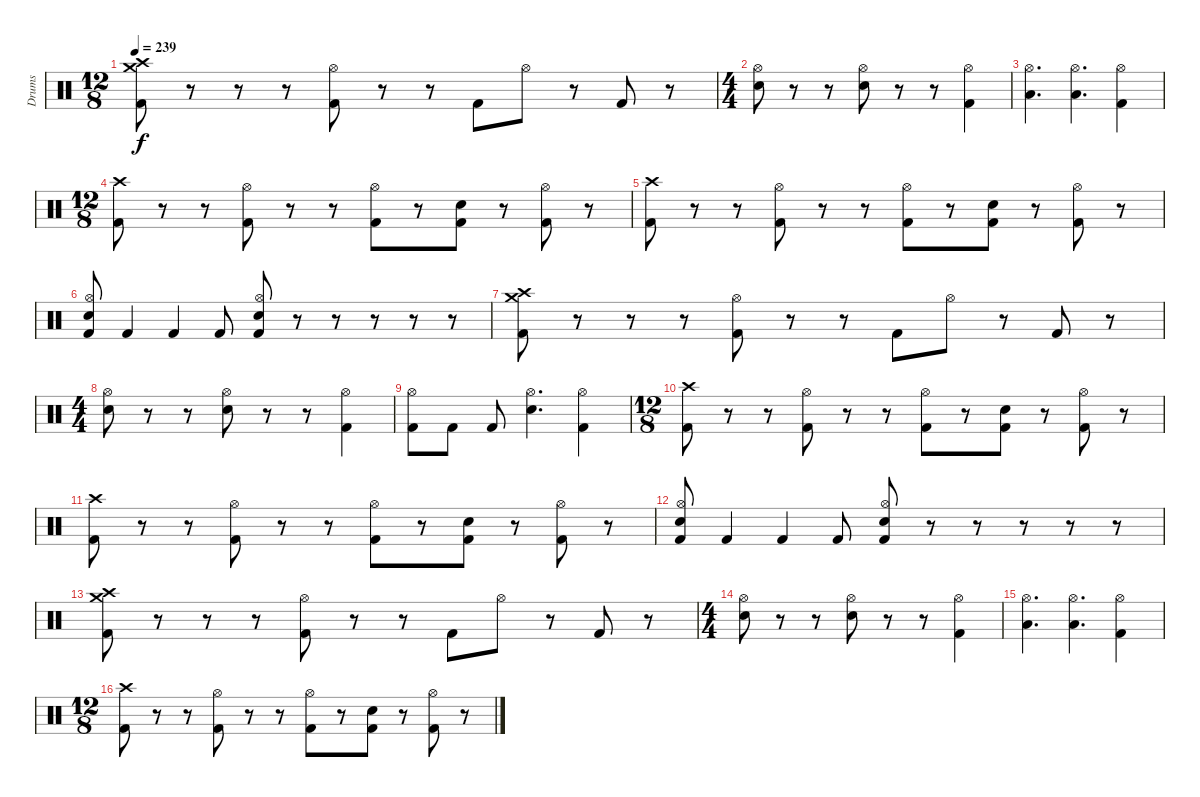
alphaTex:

\track ("Drums" "Drums") {instrument percussion}
\staff {score}
\articulation defaults
\ts (12 8)
\tempo 239
\clef neutral
\ks c
("Crash high (hit)" "Crash medium (hit)" "Kick (hit) 2").8{dy f} r.8 r.8 r.8 ("Hi-Hat (open)" "Kick (hit) 2").8 r.8 r.8 "Kick (hit) 2".8 "Hi-Hat (open)".8 r.8 "Kick (hit) 2".8 r.8 |
\ts (4 4)
("Hi-Hat (open)" "Electric Snare (hit)").8 r.8 r.8 ("Hi-Hat (open)" "Electric Snare (hit)").8 r.8 r.8 ("Hi-Hat (open)" "Kick (hit) 2").4 |
("Hi-Hat (open)" "Low Tom (hit)").4{d} ("Hi-Hat (open)" "Low Tom (hit)").4{d} ("Hi-Hat (open)" "Kick (hit) 2").4 |
\ts (12 8)
("Crash high (hit)" "Kick (hit) 2").8 r.8 r.8 ("Hi-Hat (open)" "Kick (hit) 2").8 r.8 r.8 ("Hi-Hat (open)" "Kick (hit) 2").8 r.8 ("Electric Snare (hit)" "Kick (hit) 2").8 r.8 ("Hi-Hat (open)" "Kick (hit) 2").8 r.8 |
("Crash high (hit)" "Kick (hit) 2").8 r.8 r.8 ("Hi-Hat (open)" "Kick (hit) 2").8 r.8 r.8 ("Hi-Hat (open)" "Kick (hit) 2").8 r.8 ("Electric Snare (hit)" "Kick (hit) 2").8 r.8 ("Hi-Hat (open)" "Kick (hit) 2").8 r.8 |
("Hi-Hat (open)" "Electric Snare (hit)" "Kick (hit) 2").8 "Kick (hit) 2".4 "Kick (hit) 2".4 "Kick (hit) 2".8 ("Hi-Hat (open)" "Electric Snare (hit)" "Kick (hit) 2").8 r.8 r.8 r.8 r.8 r.8 |
("Crash high (hit)" "Crash medium (hit)" "Kick (hit) 2").8 r.8 r.8 r.8 ("Hi-Hat (open)" "Kick (hit) 2").8 r.8 r.8 "Kick (hit) 2".8 "Hi-Hat (open)".8 r.8 "Kick (hit) 2".8 r.8 |
\ts (4 4)
("Hi-Hat (open)" "Electric Snare (hit)").8 r.8 r.8 ("Hi-Hat (open)" "Electric Snare (hit)").8 r.8 r.8 ("Hi-Hat (open)" "Kick (hit) 2").4 |
("Hi-Hat (open)" "Kick (hit) 2").8 "Kick (hit) 2".8 "Kick (hit) 2".8 ("Hi-Hat (open)" "Electric Snare (hit)").4{d} ("Hi-Hat (open)" "Kick (hit) 2").4 |
\ts (12 8)
("Crash high (hit)" "Kick (hit) 2").8 r.8 r.8 ("Hi-Hat (open)" "Kick (hit) 2").8 r.8 r.8 ("Hi-Hat (open)" "Kick (hit) 2").8 r.8 ("Electric Snare (hit)" "Kick (hit) 2").8 r.8 ("Hi-Hat (open)" "Kick (hit) 2").8 r.8 |
("Crash high (hit)" "Kick (hit) 2").8 r.8 r.8 ("Hi-Hat (open)" "Kick (hit) 2").8 r.8 r.8 ("Hi-Hat (open)" "Kick (hit) 2").8 r.8 ("Electric Snare (hit)" "Kick (hit) 2").8 r.8 ("Hi-Hat (open)" "Kick (hit) 2").8 r.8 |
("Hi-Hat (open)" "Electric Snare (hit)" "Kick (hit) 2").8 "Kick (hit) 2".4 "Kick (hit) 2".4 "Kick (hit) 2".8 ("Hi-Hat (open)" "Electric Snare (hit)" "Kick (hit) 2").8 r.8 r.8 r.8 r.8 r.8 |
("Crash high (hit)" "Crash medium (hit)" "Kick (hit) 2").8 r.8 r.8 r.8 ("Hi-Hat (open)" "Kick (hit) 2").8 r.8 r.8 "Kick (hit) 2".8 "Hi-Hat (open)".8 r.8 "Kick (hit) 2".8 r.8 |
\ts (4 4)
("Hi-Hat (open)" "Electric Snare (hit)").8 r.8 r.8 ("Hi-Hat (open)" "Electric Snare (hit)").8 r.8 r.8 ("Hi-Hat (open)" "Kick (hit) 2").4 |
("Hi-Hat (open)" "Low Tom (hit)").4{d} ("Hi-Hat (open)" "Low Tom (hit)").4{d} ("Hi-Hat (open)" "Kick (hit) 2").4 |
\ts (12 8)
("Crash high (hit)" "Kick (hit) 2").8 r.8 r.8 ("Hi-Hat (open)" "Kick (hit) 2").8 r.8 r.8 ("Hi-Hat (open)" "Kick (hit) 2").8 r.8 ("Electric Snare (hit)" "Kick (hit) 2").8 r.8 ("Hi-Hat (open)" "Kick (hit) 2").8 r.8
